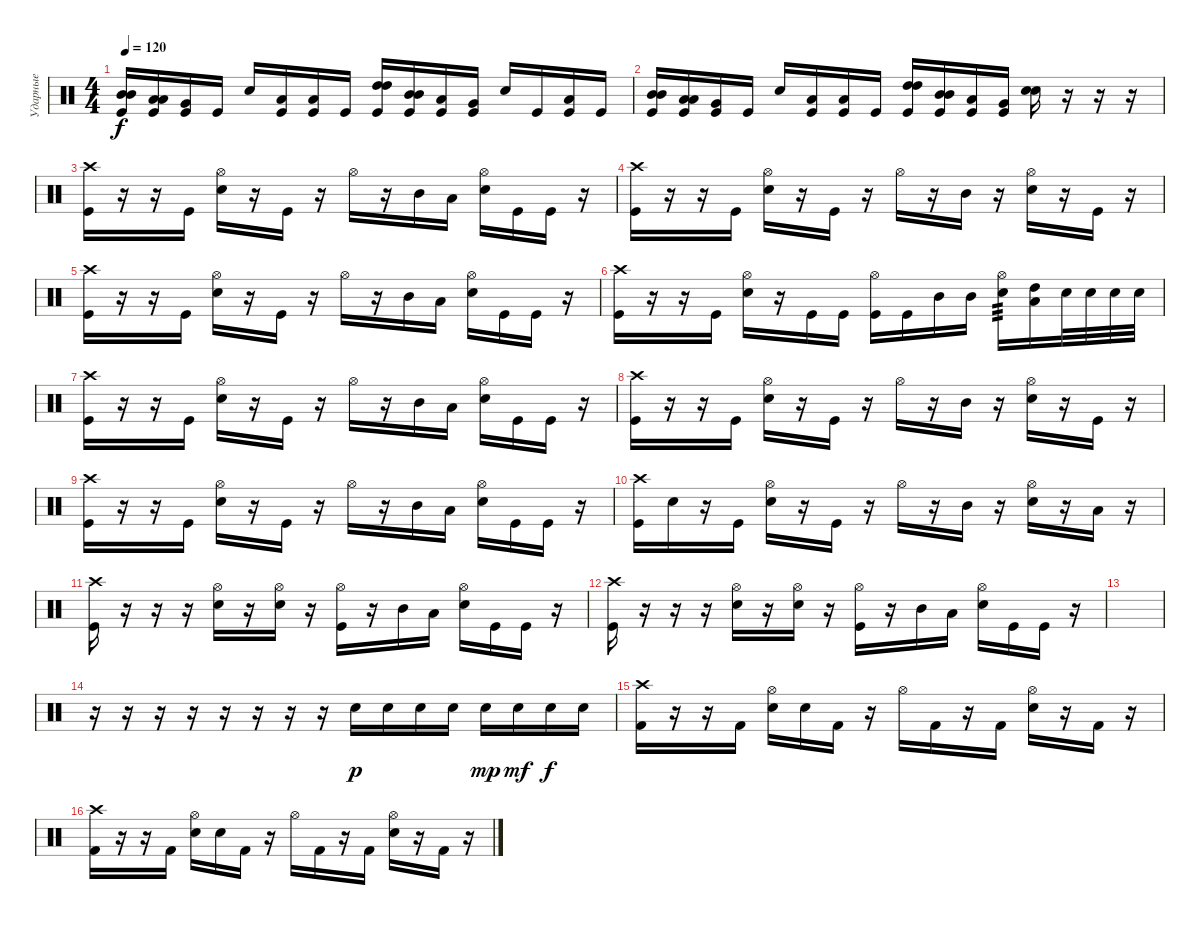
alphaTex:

\track ("Ударные" "Ударные") {instrument percussion}
\staff {score}
\articulation defaults
\ts (4 4)
\tempo 120
\clef neutral
\ks c
("Mid Tom (hit)" "Mid Tom (hit)" "Kick (hit)").16{dy f} ("Low Tom (hit)" "Low Tom (hit)" "Kick (hit)").16 ("Very Low Tom (hit)" "Kick (hit)").16 "Kick (hit)".16 "Electric Snare (hit)".16 ("Low Floor Tom (hit)" "Kick (hit)").16 ("Low Floor Tom (hit)" "Kick (hit)").16 "Kick (hit)".16 ("High Tom (hit)" "High Tom (hit)" "Kick (hit)").16 ("Mid Tom (hit)" "Mid Tom (hit)" "Kick (hit)").16 ("Low Tom (hit)" "Kick (hit)").16 ("Very Low Tom (hit)" "Kick (hit)").16 "Electric Snare (hit)".16 "Kick (hit)".16 ("Low Floor Tom (hit)" "Kick (hit)").16 "Kick (hit)".16 |
("Mid Tom (hit)" "Mid Tom (hit)" "Kick (hit)").16 ("Low Tom (hit)" "Low Tom (hit)" "Kick (hit)").16 ("Very Low Tom (hit)" "Kick (hit)").16 "Kick (hit)".16 "Electric Snare (hit)".16 ("Low Floor Tom (hit)" "Kick (hit)").16 ("Low Floor Tom (hit)" "Kick (hit)").16 "Kick (hit)".16 ("High Tom (hit)" "High Tom (hit)" "Kick (hit)").16 ("Mid Tom (hit)" "Mid Tom (hit)" "Kick (hit)").16 ("Low Tom (hit)" "Kick (hit)").16 ("Very Low Tom (hit)" "Kick (hit)").16 ("Electric Snare (hit)" "Electric Snare (hit)").16 r.16 r.16 r.16 |
("Crash high (hit)" "Kick (hit)").16 r.16 r.16 "Kick (hit)".16 ("Hi-Hat (open)" "Electric Snare (hit)").16 r.16 "Kick (hit)".16 r.16 "Hi-Hat (open)".16 r.16 "Mid Tom (hit)".16 "Low Tom (hit)".16 ("Hi-Hat (open)" "Electric Snare (hit)").16 "Kick (hit)".16 "Kick (hit)".16 r.16 |
("Crash high (hit)" "Kick (hit)").16 r.16 r.16 "Kick (hit)".16 ("Hi-Hat (open)" "Electric Snare (hit)").16 r.16 "Kick (hit)".16 r.16 "Hi-Hat (open)".16 r.16 "Mid Tom (hit)".16 r.16 ("Hi-Hat (open)" "Electric Snare (hit)").16 r.16 "Kick (hit)".16 r.16 |
("Crash high (hit)" "Kick (hit)").16 r.16 r.16 "Kick (hit)".16 ("Hi-Hat (open)" "Electric Snare (hit)").16 r.16 "Kick (hit)".16 r.16 "Hi-Hat (open)".16 r.16 "Mid Tom (hit)".16 "Low Tom (hit)".16 ("Hi-Hat (open)" "Electric Snare (hit)").16 "Kick (hit)".16 "Kick (hit)".16 r.16 |
("Crash high (hit)" "Kick (hit)").16 r.16 r.16 "Kick (hit)".16 ("Hi-Hat (open)" "Electric Snare (hit)").16 r.16 "Kick (hit)".16 "Kick (hit)".16 ("Hi-Hat (open)" "Kick (hit)").16 "Kick (hit)".16 "Mid Tom (hit)".16 "Mid Tom (hit)".16 ("Hi-Hat (open)" "Electric Snare (hit)").16{tp 3} ("High Tom (hit)" "Low Tom (hit)").16 "Electric Snare (hit)".32 "Electric Snare (hit)".32 "Electric Snare (hit)".32 "Electric Snare (hit)".32 |
("Crash high (hit)" "Kick (hit)").16 r.16 r.16 "Kick (hit)".16 ("Hi-Hat (open)" "Electric Snare (hit)").16 r.16 "Kick (hit)".16 r.16 "Hi-Hat (open)".16 r.16 "Mid Tom (hit)".16 "Low Tom (hit)".16 ("Hi-Hat (open)" "Electric Snare (hit)").16 "Kick (hit)".16 "Kick (hit)".16 r.16 |
("Crash high (hit)" "Kick (hit)").16 r.16 r.16 "Kick (hit)".16 ("Hi-Hat (open)" "Electric Snare (hit)").16 r.16 "Kick (hit)".16 r.16 "Hi-Hat (open)".16 r.16 "Mid Tom (hit)".16 r.16 ("Hi-Hat (open)" "Electric Snare (hit)").16 r.16 "Kick (hit)".16 r.16 |
("Crash high (hit)" "Kick (hit)").16 r.16 r.16 "Kick (hit)".16 ("Hi-Hat (open)" "Electric Snare (hit)").16 r.16 "Kick (hit)".16 r.16 "Hi-Hat (open)".16 r.16 "Mid Tom (hit)".16 "Low Tom (hit)".16 ("Hi-Hat (open)" "Electric Snare (hit)").16 "Kick (hit)".16 "Kick (hit)".16 r.16 |
("Crash high (hit)" "Kick (hit)").16 "Electric Snare (hit)".16 r.16 "Kick (hit)".16 ("Hi-Hat (open)" "Electric Snare (hit)").16 r.16 "Kick (hit)".16 r.16 "Hi-Hat (open)".16 r.16 "Mid Tom (hit)".16 r.16 ("Hi-Hat (open)" "Electric Snare (hit)").16 r.16 "Low Tom (hit)".16 r.16 |
("Crash high (hit)" "Kick (hit)").16 r.16 r.16 r.16 ("Hi-Hat (open)" "Electric Snare (hit)").16 r.16 ("Hi-Hat (open)" "Electric Snare (hit)").16 r.16 ("Hi-Hat (open)" "Kick (hit)").16 r.16 "Mid Tom (hit)".16 "Low Tom (hit)".16 ("Hi-Hat (open)" "Electric Snare (hit)").16 "Kick (hit)".16 "Kick (hit)".16 r.16 |
("Crash high (hit)" "Kick (hit)").16 r.16 r.16 r.16 ("Hi-Hat (open)" "Electric Snare (hit)").16 r.16 ("Hi-Hat (open)" "Electric Snare (hit)").16 r.16 ("Hi-Hat (open)" "Kick (hit)").16 r.16 "Mid Tom (hit)".16 "Low Tom (hit)".16 ("Hi-Hat (open)" "Electric Snare (hit)").16 "Kick (hit)".16 "Kick (hit)".16 r.16 |
|
r.16 r.16 r.16 r.16 r.16 r.16 r.16 r.16 "Electric Snare (hit)".16{dy p} "Electric Snare (hit)".16 "Electric Snare (hit)".16 "Electric Snare (hit)".16 "Electric Snare (hit)".16{dy mp} "Electric Snare (hit)".16{dy mf} "Electric Snare (hit)".16{dy f} "Electric Snare (hit)".16 |
("Crash high (hit)" "Kick (hit) 2").16 r.16 r.16 "Kick (hit) 2".16 ("Hi-Hat (open)" "Electric Snare (hit)").16 "Electric Snare (hit)".16 "Kick (hit) 2".16 r.16 "Hi-Hat (open)".16 "Kick (hit) 2".16 r.16 "Kick (hit) 2".16 ("Hi-Hat (open)" "Electric Snare (hit)").16 r.16 "Kick (hit) 2".16 r.16 |
("Crash high (hit)" "Kick (hit) 2").16 r.16 r.16 "Kick (hit) 2".16 ("Hi-Hat (open)" "Electric Snare (hit)").16 "Electric Snare (hit)".16 "Kick (hit) 2".16 r.16 "Hi-Hat (open)".16 "Kick (hit) 2".16 r.16 "Kick (hit) 2".16 ("Hi-Hat (open)" "Electric Snare (hit)").16 r.16 "Kick (hit) 2".16 r.16
